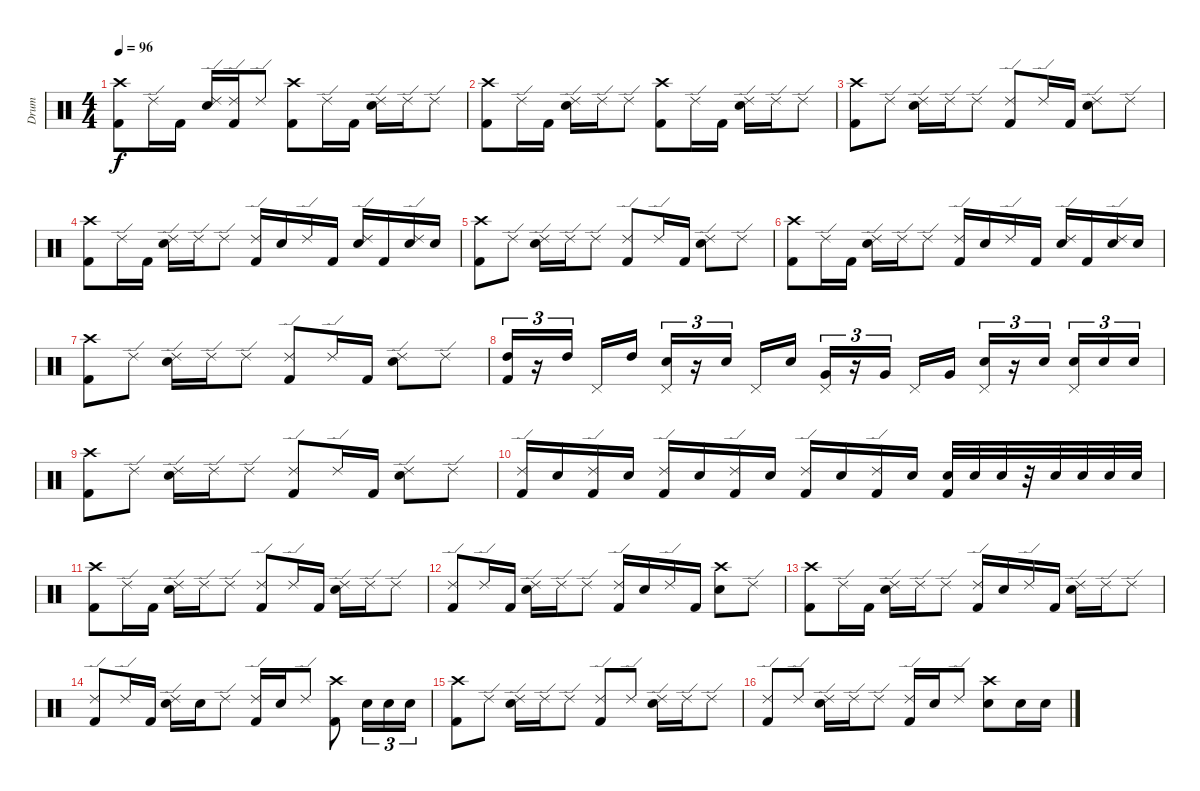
\track ("Drum" "Drum") {instrument percussion}
\staff {score}
\articulation defaults
\ts (4 4)
\tempo 96
\clef neutral
\ks c
("Crash high (hit)" "Kick (hit) 2").8{dy f} "Ride (edge) 2".16 "Kick (hit) 2".16 ("Ride (edge) 2" "Electric Snare (hit)").16 ("Ride (edge) 2" "Kick (hit) 2").16 "Ride (edge) 2".8 ("Crash high (hit)" "Kick (hit) 2").8 "Ride (edge) 2".16 "Kick (hit) 2".16 ("Ride (edge) 2" "Electric Snare (hit)").16 "Ride (edge) 2".16 "Ride (edge) 2".8 |
("Crash high (hit)" "Kick (hit) 2").8 "Ride (edge) 2".16 "Kick (hit) 2".16 ("Ride (edge) 2" "Electric Snare (hit)").16 "Ride (edge) 2".16 "Ride (edge) 2".8 ("Crash high (hit)" "Kick (hit) 2").8 "Ride (edge) 2".16 "Kick (hit) 2".16 ("Ride (edge) 2" "Electric Snare (hit)").16 "Ride (edge) 2".16 "Ride (edge) 2".8 |
("Crash high (hit)" "Kick (hit) 2").8 "Ride (edge) 2".8 ("Ride (edge) 2" "Electric Snare (hit)").16 "Ride (edge) 2".16 "Ride (edge) 2".8 ("Ride (edge) 2" "Kick (hit) 2").8 "Ride (edge) 2".16 "Kick (hit) 2".16 ("Ride (edge) 2" "Electric Snare (hit)").8 "Ride (edge) 2".8 |
("Crash high (hit)" "Kick (hit) 2").8 "Ride (edge) 2".16 "Kick (hit) 2".16 ("Ride (edge) 2" "Electric Snare (hit)").16 "Ride (edge) 2".16 "Ride (edge) 2".8 ("Ride (edge) 2" "Kick (hit) 2").16 "Electric Snare (hit)".16 "Ride (edge) 2".16 "Kick (hit) 2".16 ("Ride (edge) 2" "Electric Snare (hit)").16 "Kick (hit) 2".16 ("Ride (edge) 2" "Electric Snare (hit)").16 "Electric Snare (hit)".16 |
("Crash high (hit)" "Kick (hit) 2").8 "Ride (edge) 2".8 ("Ride (edge) 2" "Electric Snare (hit)").16 "Ride (edge) 2".16 "Ride (edge) 2".8 ("Ride (edge) 2" "Kick (hit) 2").8 "Ride (edge) 2".16 "Kick (hit) 2".16 ("Ride (edge) 2" "Electric Snare (hit)").8 "Ride (edge) 2".8 |
("Crash high (hit)" "Kick (hit) 2").8 "Ride (edge) 2".16 "Kick (hit) 2".16 ("Ride (edge) 2" "Electric Snare (hit)").16 "Ride (edge) 2".16 "Ride (edge) 2".8 ("Ride (edge) 2" "Kick (hit) 2").16 "Electric Snare (hit)".16 "Ride (edge) 2".16 "Kick (hit) 2".16 ("Ride (edge) 2" "Electric Snare (hit)").16 "Kick (hit) 2".16 ("Ride (edge) 2" "Electric Snare (hit)").16 "Electric Snare (hit)".16 |
("Crash high (hit)" "Kick (hit) 2").8 "Ride (edge) 2".8 ("Ride (edge) 2" "Electric Snare (hit)").16 "Ride (edge) 2".16 "Ride (edge) 2".8 ("Ride (edge) 2" "Kick (hit) 2").8 "Ride (edge) 2".16 "Kick (hit) 2".16 ("Ride (edge) 2" "Electric Snare (hit)").8 "Ride (edge) 2".8 |
("High Tom (hit)" "Kick (hit) 2").16{tu (3 2)} r.16{tu (3 2)} "High Tom (hit)".16{tu (3 2) beam splitsecondary} "Pedal Hi-Hat (hit)".16 "High Tom (hit)".16 ("Electric Snare (hit)" "Pedal Hi-Hat (hit)").16{tu (3 2)} r.16{tu (3 2)} "Electric Snare (hit)".16{tu (3 2) beam splitsecondary} "Pedal Hi-Hat (hit)".16 "Electric Snare (hit)".16 ("Very Low Tom (hit)" "Pedal Hi-Hat (hit)").16{tu (3 2)} r.16{tu (3 2)} "Very Low Tom (hit)".16{tu (3 2) beam splitsecondary} "Pedal Hi-Hat (hit)".16 "Very Low Tom (hit)".16 ("Electric Snare (hit)" "Pedal Hi-Hat (hit)").16{tu (3 2)} r.16{tu (3 2)} "Electric Snare (hit)".16{tu (3 2) beam splitsecondary} ("Electric Snare (hit)" "Pedal Hi-Hat (hit)").16{tu (3 2)} "Electric Snare (hit)".16{tu (3 2)} "Electric Snare (hit)".16{tu (3 2)} |
("Crash high (hit)" "Kick (hit) 2").8 "Ride (edge) 2".8 ("Ride (edge) 2" "Electric Snare (hit)").16 "Ride (edge) 2".16 "Ride (edge) 2".8 ("Ride (edge) 2" "Kick (hit) 2").8 "Ride (edge) 2".16 "Kick (hit) 2".16 ("Ride (edge) 2" "Electric Snare (hit)").8 "Ride (edge) 2".8 |
("Ride (edge) 2" "Kick (hit) 2").16 "Electric Snare (hit)".16 ("Ride (edge) 2" "Kick (hit) 2").16 "Electric Snare (hit)".16 ("Ride (edge) 2" "Kick (hit) 2").16 "Electric Snare (hit)".16 ("Ride (edge) 2" "Kick (hit) 2").16 "Electric Snare (hit)".16 ("Ride (edge) 2" "Kick (hit) 2").16 "Electric Snare (hit)".16 ("Ride (edge) 2" "Kick (hit) 2").16 "Electric Snare (hit)".16 ("Electric Snare (hit)" "Kick (hit) 2").32 "Electric Snare (hit)".32 "Electric Snare (hit)".32 r.32 "Electric Snare (hit)".32 "Electric Snare (hit)".32 "Electric Snare (hit)".32 "Electric Snare (hit)".32 |
("Crash high (hit)" "Kick (hit) 2").8 "Ride (edge) 2".16 "Kick (hit) 2".16 ("Ride (edge) 2" "Electric Snare (hit)").16 "Ride (edge) 2".16 "Ride (edge) 2".8 ("Ride (edge) 2" "Kick (hit) 2").8 "Ride (edge) 2".16 "Kick (hit) 2".16 ("Ride (edge) 2" "Electric Snare (hit)").16 "Ride (edge) 2".16 "Ride (edge) 2".8 |
("Ride (edge) 2" "Kick (hit) 2").8 "Ride (edge) 2".16 "Kick (hit) 2".16 ("Ride (edge) 2" "Electric Snare (hit)").16 "Ride (edge) 2".16 "Ride (edge) 2".8 ("Ride (edge) 2" "Kick (hit) 2").16 "Electric Snare (hit)".16 "Ride (edge) 2".16 "Kick (hit) 2".16 ("Crash high (hit)" "Electric Snare (hit)").8 "Ride (edge) 2".8 |
("Crash high (hit)" "Kick (hit) 2").8 "Ride (edge) 2".16 "Kick (hit) 2".16 ("Ride (edge) 2" "Electric Snare (hit)").16 "Ride (edge) 2".16 "Ride (edge) 2".8 ("Ride (edge) 2" "Kick (hit) 2").16 "Electric Snare (hit)".16 "Ride (edge) 2".16 "Kick (hit) 2".16 ("Ride (edge) 2" "Electric Snare (hit)").16 "Ride (edge) 2".16 "Ride (edge) 2".8 |
("Ride (edge) 2" "Kick (hit) 2").8 "Ride (edge) 2".16 "Kick (hit) 2".16 ("Ride (edge) 2" "Electric Snare (hit)").16 "Electric Snare (hit)".16 "Ride (edge) 2".8 ("Ride (edge) 2" "Kick (hit) 2").16 "Electric Snare (hit)".16 "Ride (edge) 2".8 ("Crash high (hit)" "Kick (hit) 2").8 "Electric Snare (hit)".16{tu (3 2)} "Electric Snare (hit)".16{tu (3 2)} "Electric Snare (hit)".16{tu (3 2)} |
("Crash high (hit)" "Kick (hit) 2").8 "Ride (edge) 2".8 ("Ride (edge) 2" "Electric Snare (hit)").16 "Ride (edge) 2".16 "Ride (edge) 2".8 ("Ride (edge) 2" "Kick (hit) 2").8 "Ride (edge) 2".8 ("Ride (edge) 2" "Electric Snare (hit)").16 "Ride (edge) 2".16 "Ride (edge) 2".8 |
("Ride (edge) 2" "Kick (hit) 2").8 "Ride (edge) 2".8 ("Ride (edge) 2" "Electric Snare (hit)").16 "Ride (edge) 2".16 "Ride (edge) 2".8 ("Ride (edge) 2" "Kick (hit) 2").16 "Electric Snare (hit)".16 "Ride (edge) 2".8 ("Crash high (hit)" "Electric Snare (hit)").8 "Electric Snare (hit)".16 "Electric Snare (hit)".16
